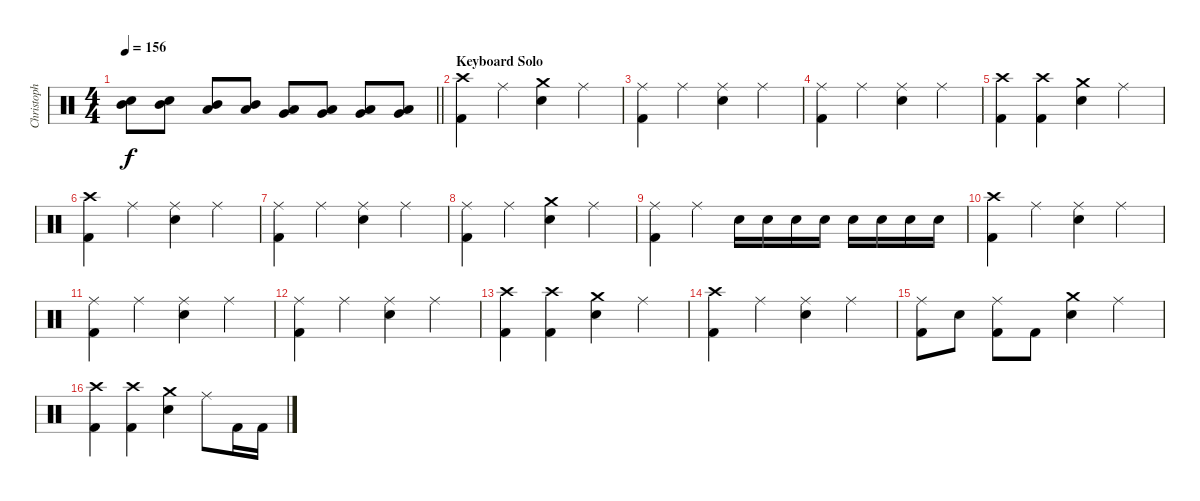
\track ("Christoph Schneider" "Christoph ") {instrument percussion}
\staff {score}
\articulation defaults
\ts (4 4)
\tempo 156
\clef neutral
\barLineRight lightlight
\ks c
("Mid Tom (hit)" "Snare (hit) 2").8{dy f} ("Mid Tom (hit)" "Snare (hit) 2").8 ("Mid Tom (hit)" "Low Tom (hit)").8 ("Mid Tom (hit)" "Low Tom (hit)").8 ("Low Tom (hit)" "Very Low Tom (hit)").8 ("Very Low Tom (hit)" "Low Floor Tom (hit)").8 ("Low Tom (hit)" "Very Low Tom (hit)").8 ("Very Low Tom (hit)" "Low Floor Tom (hit)").8 |
\section ("" "Keyboard Solo")
("Crash high (hit)" "Kick (hit) 2").4 "Ride (middle)".4 ("Crash medium (hit)" "Snare (hit) 2").4 "Ride (middle)".4 |
("Ride (middle)" "Kick (hit) 2").4 "Ride (middle)".4 ("Ride (middle)" "Snare (hit) 2").4 "Ride (middle)".4 |
("Ride (middle)" "Kick (hit) 2").4 "Ride (middle)".4 ("Ride (middle)" "Snare (hit) 2").4 "Ride (middle)".4 |
("Crash high (hit)" "Kick (hit) 2").4 ("Crash high (hit)" "Kick (hit) 2").4 ("Crash medium (hit)" "Snare (hit) 2").4 "Ride (middle)".4 |
("Crash high (hit)" "Kick (hit) 2").4 "Ride (middle)".4 ("Ride (middle)" "Snare (hit) 2").4 "Ride (middle)".4 |
("Ride (middle)" "Kick (hit) 2").4 "Ride (middle)".4 ("Ride (middle)" "Snare (hit) 2").4 "Ride (middle)".4 |
("Ride (middle)" "Kick (hit) 2").4 "Ride (middle)".4 ("Crash medium (hit)" "Snare (hit) 2").4 "Ride (middle)".4 |
("Ride (middle)" "Kick (hit) 2").4 "Ride (middle)".4 "Snare (hit) 2".16 "Snare (hit) 2".16 "Snare (hit) 2".16 "Snare (hit) 2".16 "Snare (hit) 2".16 "Snare (hit) 2".16 "Snare (hit) 2".16 "Snare (hit) 2".16 |
("Crash high (hit)" "Kick (hit) 2").4 "Ride (middle)".4 ("Ride (middle)" "Snare (hit) 2").4 "Ride (middle)".4 |
("Ride (middle)" "Kick (hit) 2").4 "Ride (middle)".4 ("Ride (middle)" "Snare (hit) 2").4 "Ride (middle)".4 |
("Ride (middle)" "Kick (hit) 2").4 "Ride (middle)".4 ("Ride (middle)" "Snare (hit) 2").4 "Ride (middle)".4 |
("Crash high (hit)" "Kick (hit) 2").4 ("Crash high (hit)" "Kick (hit) 2").4 ("Crash medium (hit)" "Snare (hit) 2").4 "Ride (middle)".4 |
("Crash high (hit)" "Kick (hit) 2").4 "Ride (middle)".4 ("Ride (middle)" "Snare (hit) 2").4 "Ride (middle)".4 |
("Ride (middle)" "Kick (hit) 2").8 "Snare (hit) 2".8 ("Ride (middle)" "Kick (hit) 2").8 "Kick (hit) 2".8 ("Crash medium (hit)" "Snare (hit) 2").4 "Ride (middle)".4 |
("Crash high (hit)" "Kick (hit) 2").4 ("Crash high (hit)" "Kick (hit) 2").4 ("Crash medium (hit)" "Snare (hit) 2").4 "Ride (middle)".8 "Kick (hit) 2".16 "Kick (hit) 2".16
